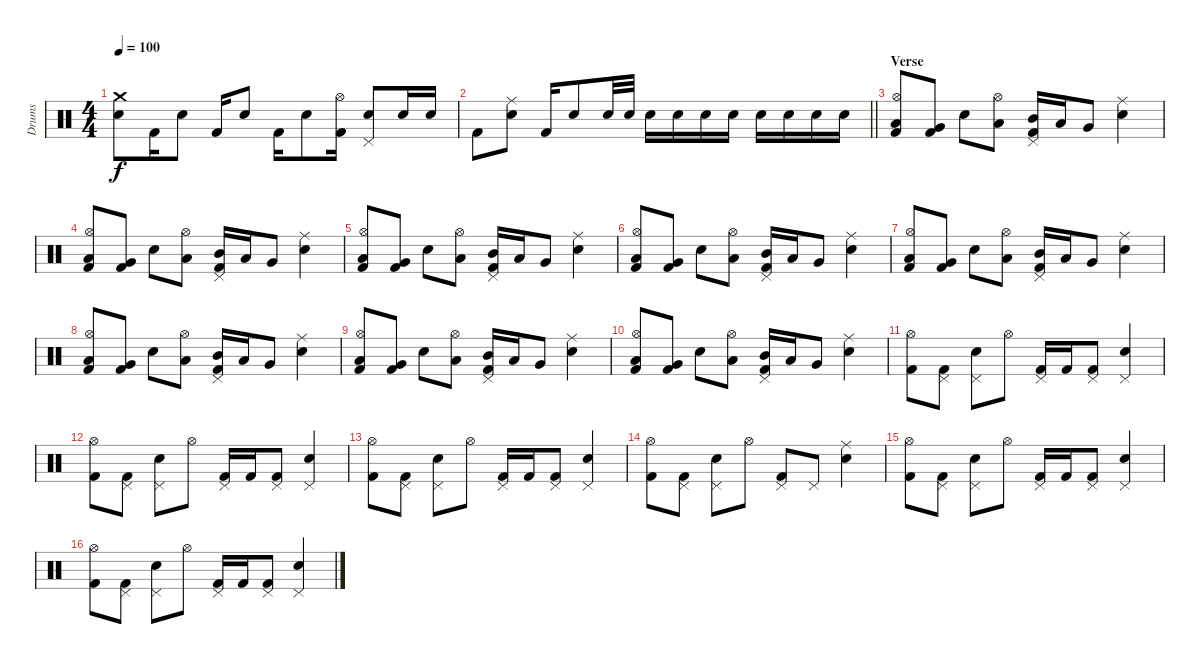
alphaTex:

\track ("Drums" "Drums") {instrument percussion}
\staff {score}
\articulation defaults
\ts (4 4)
\tempo 100
\clef neutral
\ks c
("Crash medium (hit)" "Snare (hit) 2").8{dy f} "Kick (hit) 2".16 "Snare (hit) 2".8 "Kick (hit) 2".16 "Snare (hit) 2".8 "Kick (hit) 2".16 "Snare (hit) 2".8 ("Hi-Hat (open)" "Kick (hit) 2").16 ("Pedal Hi-Hat (hit)" "Snare (hit) 2").8 "Snare (hit) 2".16 "Snare (hit) 2".16 |
\barLineRight lightlight "Kick (hit) 2".8
("Ride (middle)" "Snare (hit) 2").8 "Kick (hit) 2".16 "Snare (hit) 2".8 "Snare (hit) 2".32 "Snare (hit) 2".32 "Snare (hit) 2".16 "Snare (hit) 2".16 "Snare (hit) 2".16 "Snare (hit) 2".16 "Snare (hit) 2".16 "Snare (hit) 2".16 "Snare (hit) 2".16 "Snare (hit) 2".16 |
\section ("" "Verse")
("Hi-Hat (open)" "Low Tom (hit)" "Kick (hit) 2").8 ("Very Low Tom (hit)" "Kick (hit) 2").8 "Snare (hit) 2".8 ("Hi-Hat (open)" "Low Floor Tom (hit)").8 ("Pedal Hi-Hat (hit)" "Mid Tom (hit)" "Kick (hit) 2").16 "Low Tom (hit)".16 "Very Low Tom (hit)".8 ("Ride (middle)" "Snare (hit) 2").4 |
("Hi-Hat (open)" "Low Tom (hit)" "Kick (hit) 2").8 ("Very Low Tom (hit)" "Kick (hit) 2").8 "Snare (hit) 2".8 ("Hi-Hat (open)" "Low Floor Tom (hit)").8 ("Pedal Hi-Hat (hit)" "Mid Tom (hit)" "Kick (hit) 2").16 "Low Tom (hit)".16 "Very Low Tom (hit)".8 ("Ride (middle)" "Snare (hit) 2").4 |
("Hi-Hat (open)" "Low Tom (hit)" "Kick (hit) 2").8 ("Very Low Tom (hit)" "Kick (hit) 2").8 "Snare (hit) 2".8 ("Hi-Hat (open)" "Low Floor Tom (hit)").8 ("Pedal Hi-Hat (hit)" "Mid Tom (hit)" "Kick (hit) 2").16 "Low Tom (hit)".16 "Very Low Tom (hit)".8 ("Ride (middle)" "Snare (hit) 2").4 |
("Hi-Hat (open)" "Low Tom (hit)" "Kick (hit) 2").8 ("Very Low Tom (hit)" "Kick (hit) 2").8 "Snare (hit) 2".8 ("Hi-Hat (open)" "Low Floor Tom (hit)").8 ("Pedal Hi-Hat (hit)" "Mid Tom (hit)" "Kick (hit) 2").16 "Low Tom (hit)".16 "Very Low Tom (hit)".8 ("Ride (middle)" "Snare (hit) 2").4 |
("Hi-Hat (open)" "Low Tom (hit)" "Kick (hit) 2").8 ("Very Low Tom (hit)" "Kick (hit) 2").8 "Snare (hit) 2".8 ("Hi-Hat (open)" "Low Floor Tom (hit)").8 ("Pedal Hi-Hat (hit)" "Mid Tom (hit)" "Kick (hit) 2").16 "Low Tom (hit)".16 "Very Low Tom (hit)".8 ("Ride (middle)" "Snare (hit) 2").4 |
("Hi-Hat (open)" "Low Tom (hit)" "Kick (hit) 2").8 ("Very Low Tom (hit)" "Kick (hit) 2").8 "Snare (hit) 2".8 ("Hi-Hat (open)" "Low Floor Tom (hit)").8 ("Pedal Hi-Hat (hit)" "Mid Tom (hit)" "Kick (hit) 2").16 "Low Tom (hit)".16 "Very Low Tom (hit)".8 ("Ride (middle)" "Snare (hit) 2").4 |
("Hi-Hat (open)" "Low Tom (hit)" "Kick (hit) 2").8 ("Very Low Tom (hit)" "Kick (hit) 2").8 "Snare (hit) 2".8 ("Hi-Hat (open)" "Low Floor Tom (hit)").8 ("Pedal Hi-Hat (hit)" "Mid Tom (hit)" "Kick (hit) 2").16 "Low Tom (hit)".16 "Very Low Tom (hit)".8 ("Ride (middle)" "Snare (hit) 2").4 |
("Hi-Hat (open)" "Low Tom (hit)" "Kick (hit) 2").8 ("Very Low Tom (hit)" "Kick (hit) 2").8 "Snare (hit) 2".8 ("Hi-Hat (open)" "Low Floor Tom (hit)").8 ("Pedal Hi-Hat (hit)" "Mid Tom (hit)" "Kick (hit) 2").16 "Low Tom (hit)".16 "Very Low Tom (hit)".8 ("Ride (middle)" "Snare (hit) 2").4 |
("Hi-Hat (open)" "Kick (hit) 2").8 ("Pedal Hi-Hat (hit)" "Kick (hit) 2").8 ("Pedal Hi-Hat (hit)" "Snare (hit) 2").8 "Hi-Hat (open)".8 ("Pedal Hi-Hat (hit)" "Kick (hit) 2").16 "Kick (hit) 2".16 ("Pedal Hi-Hat (hit)" "Kick (hit) 2").8 ("Pedal Hi-Hat (hit)" "Snare (hit) 2").4 |
("Hi-Hat (open)" "Kick (hit) 2").8 ("Pedal Hi-Hat (hit)" "Kick (hit) 2").8 ("Pedal Hi-Hat (hit)" "Snare (hit) 2").8 "Hi-Hat (open)".8 ("Pedal Hi-Hat (hit)" "Kick (hit) 2").16 "Kick (hit) 2".16 ("Pedal Hi-Hat (hit)" "Kick (hit) 2").8 ("Pedal Hi-Hat (hit)" "Snare (hit) 2").4 |
("Hi-Hat (open)" "Kick (hit) 2").8 ("Pedal Hi-Hat (hit)" "Kick (hit) 2").8 ("Pedal Hi-Hat (hit)" "Snare (hit) 2").8 "Hi-Hat (open)".8 ("Pedal Hi-Hat (hit)" "Kick (hit) 2").16 "Kick (hit) 2".16 ("Pedal Hi-Hat (hit)" "Kick (hit) 2").8 ("Pedal Hi-Hat (hit)" "Snare (hit) 2").4 |
("Hi-Hat (open)" "Kick (hit) 2").8 ("Pedal Hi-Hat (hit)" "Kick (hit) 2").8 ("Pedal Hi-Hat (hit)" "Snare (hit) 2").8 "Hi-Hat (open)".8 ("Pedal Hi-Hat (hit)" "Kick (hit) 2").8 "Pedal Hi-Hat (hit)".8 ("Ride (middle)" "Snare (hit) 2").4 |
("Hi-Hat (open)" "Kick (hit) 2").8 ("Pedal Hi-Hat (hit)" "Kick (hit) 2").8 ("Pedal Hi-Hat (hit)" "Snare (hit) 2").8 "Hi-Hat (open)".8 ("Pedal Hi-Hat (hit)" "Kick (hit) 2").16 "Kick (hit) 2".16 ("Pedal Hi-Hat (hit)" "Kick (hit) 2").8 ("Pedal Hi-Hat (hit)" "Snare (hit) 2").4 |
("Hi-Hat (open)" "Kick (hit) 2").8 ("Pedal Hi-Hat (hit)" "Kick (hit) 2").8 ("Pedal Hi-Hat (hit)" "Snare (hit) 2").8 "Hi-Hat (open)".8 ("Pedal Hi-Hat (hit)" "Kick (hit) 2").16 "Kick (hit) 2".16 ("Pedal Hi-Hat (hit)" "Kick (hit) 2").8 ("Pedal Hi-Hat (hit)" "Snare (hit) 2").4
